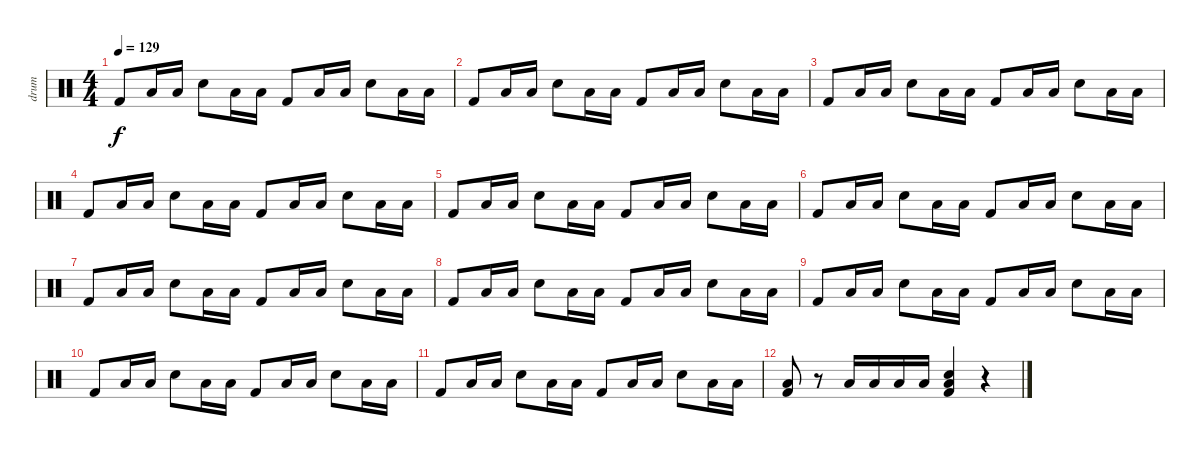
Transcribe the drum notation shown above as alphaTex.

\track ("drum" "drum") {instrument percussion}
\staff {score}
\articulation defaults
\ts (4 4)
\tempo 129
\clef neutral
\ks c "Kick (hit) 2".8{dy f} "Low Tom (hit)".16 "Low Tom (hit)".16 "Electric Snare (hit)".8 "Low Tom (hit)".16 "Low Tom (hit)".16 "Kick (hit) 2".8 "Low Tom (hit)".16 "Low Tom (hit)".16 "Electric Snare (hit)".8 "Low Tom (hit)".16 "Low Tom (hit)".16
|
"Kick (hit) 2".8 "Low Tom (hit)".16 "Low Tom (hit)".16 "Electric Snare (hit)".8 "Low Tom (hit)".16 "Low Tom (hit)".16 "Kick (hit) 2".8 "Low Tom (hit)".16 "Low Tom (hit)".16 "Electric Snare (hit)".8 "Low Tom (hit)".16 "Low Tom (hit)".16 |
"Kick (hit) 2".8 "Low Tom (hit)".16 "Low Tom (hit)".16 "Electric Snare (hit)".8 "Low Tom (hit)".16 "Low Tom (hit)".16 "Kick (hit) 2".8 "Low Tom (hit)".16 "Low Tom (hit)".16 "Electric Snare (hit)".8 "Low Tom (hit)".16 "Low Tom (hit)".16 |
"Kick (hit) 2".8 "Low Tom (hit)".16 "Low Tom (hit)".16 "Electric Snare (hit)".8 "Low Tom (hit)".16 "Low Tom (hit)".16 "Kick (hit) 2".8 "Low Tom (hit)".16 "Low Tom (hit)".16 "Electric Snare (hit)".8 "Low Tom (hit)".16 "Low Tom (hit)".16 |
"Kick (hit) 2".8 "Low Tom (hit)".16 "Low Tom (hit)".16 "Electric Snare (hit)".8 "Low Tom (hit)".16 "Low Tom (hit)".16 "Kick (hit) 2".8 "Low Tom (hit)".16 "Low Tom (hit)".16 "Electric Snare (hit)".8 "Low Tom (hit)".16 "Low Tom (hit)".16 |
"Kick (hit) 2".8 "Low Tom (hit)".16 "Low Tom (hit)".16 "Electric Snare (hit)".8 "Low Tom (hit)".16 "Low Tom (hit)".16 "Kick (hit) 2".8 "Low Tom (hit)".16 "Low Tom (hit)".16 "Electric Snare (hit)".8 "Low Tom (hit)".16 "Low Tom (hit)".16 |
"Kick (hit) 2".8 "Low Tom (hit)".16 "Low Tom (hit)".16 "Electric Snare (hit)".8 "Low Tom (hit)".16 "Low Tom (hit)".16 "Kick (hit) 2".8 "Low Tom (hit)".16 "Low Tom (hit)".16 "Electric Snare (hit)".8 "Low Tom (hit)".16 "Low Tom (hit)".16 |
"Kick (hit) 2".8 "Low Tom (hit)".16 "Low Tom (hit)".16 "Electric Snare (hit)".8 "Low Tom (hit)".16 "Low Tom (hit)".16 "Kick (hit) 2".8 "Low Tom (hit)".16 "Low Tom (hit)".16 "Electric Snare (hit)".8 "Low Tom (hit)".16 "Low Tom (hit)".16 |
"Kick (hit) 2".8 "Low Tom (hit)".16 "Low Tom (hit)".16 "Electric Snare (hit)".8 "Low Tom (hit)".16 "Low Tom (hit)".16 "Kick (hit) 2".8 "Low Tom (hit)".16 "Low Tom (hit)".16 "Electric Snare (hit)".8 "Low Tom (hit)".16 "Low Tom (hit)".16 |
"Kick (hit) 2".8 "Low Tom (hit)".16 "Low Tom (hit)".16 "Electric Snare (hit)".8 "Low Tom (hit)".16 "Low Tom (hit)".16 "Kick (hit) 2".8 "Low Tom (hit)".16 "Low Tom (hit)".16 "Electric Snare (hit)".8 "Low Tom (hit)".16 "Low Tom (hit)".16 |
"Kick (hit) 2".8 "Low Tom (hit)".16 "Low Tom (hit)".16 "Electric Snare (hit)".8 "Low Tom (hit)".16 "Low Tom (hit)".16 "Kick (hit) 2".8 "Low Tom (hit)".16 "Low Tom (hit)".16 "Electric Snare (hit)".8 "Low Tom (hit)".16 "Low Tom (hit)".16 |
("Low Tom (hit)" "Kick (hit) 2").8 r.8 "Low Tom (hit)".16 "Low Tom (hit)".16 "Low Tom (hit)".16 "Low Tom (hit)".16 ("Low Tom (hit)" "Electric Snare (hit)" "Kick (hit) 2").4 r.4
